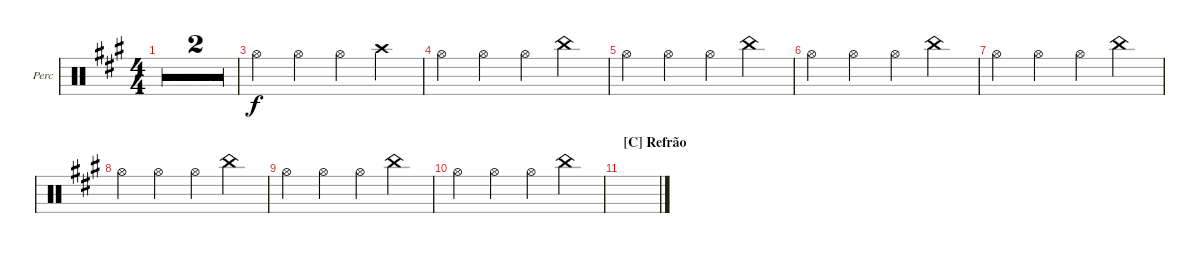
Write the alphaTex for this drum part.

\defaultSystemsLayout 4
\bracketExtendMode groupsimilarinstruments
\firstSystemTrackNameOrientation horizontal
\otherSystemsTrackNameOrientation horizontal
\track ("Percussão" "Perc") {multiBarRest instrument percussion}
\staff {score}
\articulation defaults
\ts (4 4)
\tempo 120
\clef neutral
\ks a
|
|
"Hi-Hat (open)".4 "Hi-Hat (open)".4 "Hi-Hat (open)".4 "Crash high (hit)".4 |
"Hi-Hat (open)".4 "Hi-Hat (open)".4 "Hi-Hat (open)".4 "China (hit)".4 |
"Hi-Hat (open)".4 "Hi-Hat (open)".4 "Hi-Hat (open)".4 "China (hit)".4 |
"Hi-Hat (open)".4 "Hi-Hat (open)".4 "Hi-Hat (open)".4 "China (hit)".4 |
"Hi-Hat (open)".4 "Hi-Hat (open)".4 "Hi-Hat (open)".4 "China (hit)".4 |
"Hi-Hat (open)".4 "Hi-Hat (open)".4 "Hi-Hat (open)".4 "China (hit)".4 |
"Hi-Hat (open)".4 "Hi-Hat (open)".4 "Hi-Hat (open)".4 "China (hit)".4 |
"Hi-Hat (open)".4 "Hi-Hat (open)".4 "Hi-Hat (open)".4 "China (hit)".4 |
\section ("C" "Refrão")
